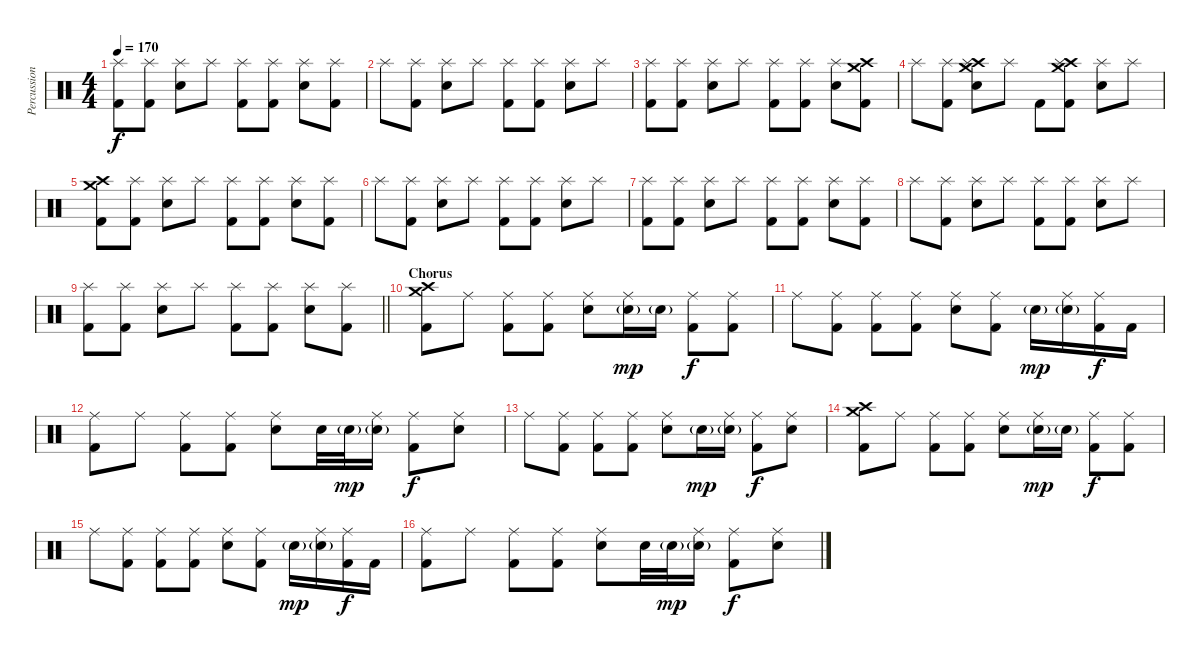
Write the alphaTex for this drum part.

\track ("Percussion" "Percussion") {instrument percussion}
\staff {score}
\articulation defaults
\ts (4 4)
\tempo 170
\clef neutral
\ks c
("Splash (hit)" "Kick (hit) 2").8{dy f} ("Splash (hit)" "Kick (hit) 2").8 ("Splash (hit)" "Electric Snare (hit)").8 "Splash (hit)".8 ("Splash (hit)" "Kick (hit) 2").8 ("Splash (hit)" "Kick (hit) 2").8 ("Splash (hit)" "Electric Snare (hit)").8 ("Splash (hit)" "Kick (hit) 2").8 |
"Splash (hit)".8 ("Splash (hit)" "Kick (hit) 2").8 ("Splash (hit)" "Electric Snare (hit)").8 "Splash (hit)".8 ("Splash (hit)" "Kick (hit) 2").8 ("Splash (hit)" "Kick (hit) 2").8 ("Splash (hit)" "Electric Snare (hit)").8 "Splash (hit)".8 |
("Splash (hit)" "Kick (hit) 2").8 ("Splash (hit)" "Kick (hit) 2").8 ("Splash (hit)" "Electric Snare (hit)").8 "Splash (hit)".8 ("Splash (hit)" "Kick (hit) 2").8 ("Splash (hit)" "Kick (hit) 2").8 ("Splash (hit)" "Electric Snare (hit)").8 ("Crash medium (hit)" "Crash high (hit)" "Kick (hit) 2").8 |
"Splash (hit)".8 ("Splash (hit)" "Kick (hit) 2").8 ("Crash medium (hit)" "Crash high (hit)" "Splash (hit)" "Electric Snare (hit)").8 "Splash (hit)".8 "Kick (hit) 2".8 ("Crash medium (hit)" "Crash high (hit)" "Splash (hit)" "Kick (hit) 2").8 ("Splash (hit)" "Electric Snare (hit)").8 "Splash (hit)".8 |
("Crash medium (hit)" "Crash high (hit)" "Kick (hit) 2").8 ("Splash (hit)" "Kick (hit) 2").8 ("Splash (hit)" "Electric Snare (hit)").8 "Splash (hit)".8 ("Splash (hit)" "Kick (hit) 2").8 ("Splash (hit)" "Kick (hit) 2").8 ("Splash (hit)" "Electric Snare (hit)").8 ("Splash (hit)" "Kick (hit) 2").8 |
"Splash (hit)".8 ("Splash (hit)" "Kick (hit) 2").8 ("Splash (hit)" "Electric Snare (hit)").8 "Splash (hit)".8 ("Splash (hit)" "Kick (hit) 2").8 ("Splash (hit)" "Kick (hit) 2").8 ("Splash (hit)" "Electric Snare (hit)").8 "Splash (hit)".8 |
("Splash (hit)" "Kick (hit) 2").8 ("Splash (hit)" "Kick (hit) 2").8 ("Splash (hit)" "Electric Snare (hit)").8 "Splash (hit)".8 ("Splash (hit)" "Kick (hit) 2").8 ("Splash (hit)" "Kick (hit) 2").8 ("Splash (hit)" "Electric Snare (hit)").8 ("Splash (hit)" "Kick (hit) 2").8 |
"Splash (hit)".8 ("Splash (hit)" "Kick (hit) 2").8 ("Splash (hit)" "Electric Snare (hit)").8 "Splash (hit)".8 ("Splash (hit)" "Kick (hit) 2").8 ("Splash (hit)" "Kick (hit) 2").8 ("Splash (hit)" "Electric Snare (hit)").8 "Splash (hit)".8 |
\barLineRight lightlight
("Splash (hit)" "Kick (hit) 2").8 ("Splash (hit)" "Kick (hit) 2").8 ("Splash (hit)" "Electric Snare (hit)").8 "Splash (hit)".8 ("Splash (hit)" "Kick (hit) 2").8 ("Splash (hit)" "Kick (hit) 2").8 ("Splash (hit)" "Electric Snare (hit)").8 ("Splash (hit)" "Kick (hit) 2").8 |
\section ("" "Chorus")
("Crash medium (hit)" "Crash high (hit)" "Kick (hit) 2").8 "Ride (middle)".8 ("Ride (middle)" "Kick (hit) 2").8 ("Ride (middle)" "Kick (hit) 2").8 ("Ride (middle)" "Electric Snare (hit)").8 ("Ride (middle)" "Electric Snare (hit)"{g}).16{dy mp} "Electric Snare (hit)"{g}.16 ("Ride (middle)" "Kick (hit) 2").8{dy f} ("Ride (middle)" "Kick (hit) 2").8 |
"Ride (middle)".8 ("Ride (middle)" "Kick (hit) 2").8 ("Ride (middle)" "Kick (hit) 2").8 ("Ride (middle)" "Kick (hit) 2").8 ("Ride (middle)" "Electric Snare (hit)").8 ("Ride (middle)" "Kick (hit) 2").8 "Electric Snare (hit)"{g}.16{dy mp} ("Ride (middle)" "Electric Snare (hit)"{g}).16 ("Ride (middle)" "Kick (hit) 2").16{dy f} "Kick (hit) 2".16 |
("Ride (middle)" "Kick (hit) 2").8 "Ride (middle)".8 ("Ride (middle)" "Kick (hit) 2").8 ("Ride (middle)" "Kick (hit) 2").8 ("Ride (middle)" "Electric Snare (hit)").8 "Electric Snare (hit)".32 "Electric Snare (hit)"{g}.32{dy mp} ("Ride (middle)" "Electric Snare (hit)"{g}).16 ("Ride (middle)" "Kick (hit) 2").8{dy f} ("Ride (middle)" "Electric Snare (hit)").8 |
"Ride (middle)".8 ("Ride (middle)" "Kick (hit) 2").8 ("Ride (middle)" "Kick (hit) 2").8 ("Ride (middle)" "Kick (hit) 2").8 ("Ride (middle)" "Electric Snare (hit)").8 "Electric Snare (hit)"{g}.16{dy mp} ("Ride (middle)" "Electric Snare (hit)"{g}).16 ("Ride (middle)" "Kick (hit) 2").8{dy f} ("Ride (middle)" "Electric Snare (hit)").8 |
("Crash medium (hit)" "Crash high (hit)" "Kick (hit) 2").8 "Ride (middle)".8 ("Ride (middle)" "Kick (hit) 2").8 ("Ride (middle)" "Kick (hit) 2").8 ("Ride (middle)" "Electric Snare (hit)").8 ("Ride (middle)" "Electric Snare (hit)"{g}).16{dy mp} "Electric Snare (hit)"{g}.16 ("Ride (middle)" "Kick (hit) 2").8{dy f} ("Ride (middle)" "Kick (hit) 2").8 |
"Ride (middle)".8 ("Ride (middle)" "Kick (hit) 2").8 ("Ride (middle)" "Kick (hit) 2").8 ("Ride (middle)" "Kick (hit) 2").8 ("Ride (middle)" "Electric Snare (hit)").8 ("Ride (middle)" "Kick (hit) 2").8 "Electric Snare (hit)"{g}.16{dy mp} ("Ride (middle)" "Electric Snare (hit)"{g}).16 ("Ride (middle)" "Kick (hit) 2").16{dy f} "Kick (hit) 2".16 |
("Ride (middle)" "Kick (hit) 2").8 "Ride (middle)".8 ("Ride (middle)" "Kick (hit) 2").8 ("Ride (middle)" "Kick (hit) 2").8 ("Ride (middle)" "Electric Snare (hit)").8 "Electric Snare (hit)".32 "Electric Snare (hit)"{g}.32{dy mp} ("Ride (middle)" "Electric Snare (hit)"{g}).16 ("Ride (middle)" "Kick (hit) 2").8{dy f} ("Ride (middle)" "Electric Snare (hit)").8
